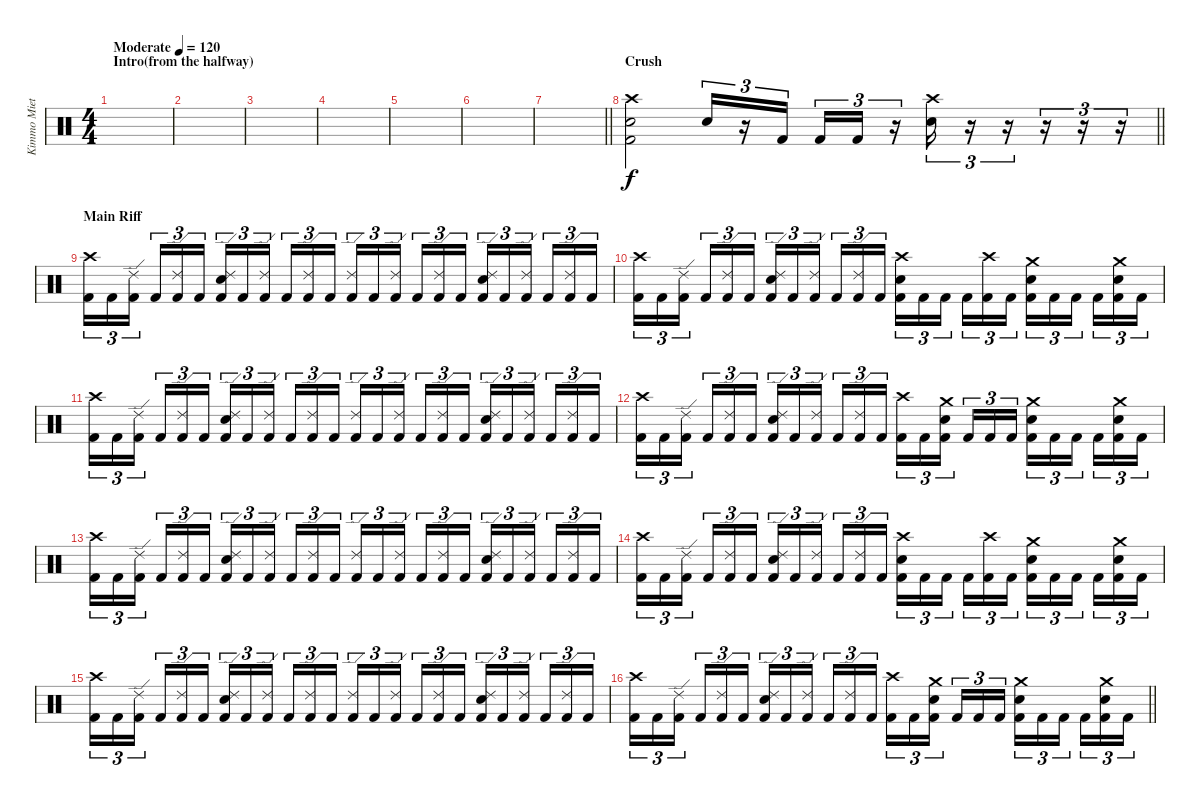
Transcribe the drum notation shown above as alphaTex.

\track ("Kimmo Miettinen" "Kimmo Miet") {instrument percussion}
\staff {score}
\articulation defaults
\ts (4 4)
\section ("" "Intro(from the halfway)")
\tempo (120 "Moderate")
\clef neutral
\ks c
|
|
|
|
|
|
\barLineRight lightlight
|
\section ("" "Crush")
\barLineRight lightlight
("Crash high (hit)" "Electric Snare (hit)" "Kick (hit) 2").2 "Electric Snare (hit)".16{tu (3 2)} r.16{tu (3 2)} "Kick (hit) 2".16{tu (3 2) beam splitsecondary} "Kick (hit) 2".16{tu (3 2)} "Kick (hit) 2".16{tu (3 2)} r.16{tu (3 2)} ("Crash high (hit)" "Electric Snare (hit)").16{tu (3 2)} r.16{tu (3 2)} r.16{tu (3 2)} r.16{tu (3 2)} r.16{tu (3 2)} r.16{tu (3 2)} |
\section ("" "Main Riff")
("Crash high (hit)" "Kick (hit) 2").16{tu (3 2)} "Kick (hit) 2".16{tu (3 2)} ("Ride (edge) 2" "Kick (hit) 2").16{tu (3 2) beam splitsecondary} "Kick (hit) 2".16{tu (3 2)} ("Ride (edge) 2" "Kick (hit) 2").16{tu (3 2)} "Kick (hit) 2".16{tu (3 2)} ("Ride (edge) 2" "Electric Snare (hit)" "Kick (hit) 2").16{tu (3 2)} "Kick (hit) 2".16{tu (3 2)} ("Ride (edge) 2" "Kick (hit) 2").16{tu (3 2) beam splitsecondary} "Kick (hit) 2".16{tu (3 2)} ("Ride (edge) 2" "Kick (hit) 2").16{tu (3 2)} "Kick (hit) 2".16{tu (3 2)} ("Ride (edge) 2" "Kick (hit) 2").16{tu (3 2)} "Kick (hit) 2".16{tu (3 2)} ("Ride (edge) 2" "Kick (hit) 2").16{tu (3 2) beam splitsecondary} "Kick (hit) 2".16{tu (3 2)} ("Ride (edge) 2" "Kick (hit) 2").16{tu (3 2)} "Kick (hit) 2".16{tu (3 2)} ("Ride (edge) 2" "Electric Snare (hit)" "Kick (hit) 2").16{tu (3 2)} "Kick (hit) 2".16{tu (3 2)} ("Ride (edge) 2" "Kick (hit) 2").16{tu (3 2) beam splitsecondary} "Kick (hit) 2".16{tu (3 2)} ("Ride (edge) 2" "Kick (hit) 2").16{tu (3 2)} "Kick (hit) 2".16{tu (3 2)} |
("Crash high (hit)" "Kick (hit) 2").16{tu (3 2)} "Kick (hit) 2".16{tu (3 2)} ("Ride (edge) 2" "Kick (hit) 2").16{tu (3 2) beam splitsecondary} "Kick (hit) 2".16{tu (3 2)} ("Ride (edge) 2" "Kick (hit) 2").16{tu (3 2)} "Kick (hit) 2".16{tu (3 2)} ("Ride (edge) 2" "Electric Snare (hit)" "Kick (hit) 2").16{tu (3 2)} "Kick (hit) 2".16{tu (3 2)} ("Ride (edge) 2" "Kick (hit) 2").16{tu (3 2) beam splitsecondary} "Kick (hit) 2".16{tu (3 2)} ("Ride (edge) 2" "Kick (hit) 2").16{tu (3 2)} "Kick (hit) 2".16{tu (3 2)} ("Crash high (hit)" "Electric Snare (hit)" "Kick (hit) 2").16{tu (3 2)} "Kick (hit) 2".16{tu (3 2)} "Kick (hit) 2".16{tu (3 2) beam splitsecondary} "Kick (hit) 2".16{tu (3 2)} ("Crash high (hit)" "Kick (hit) 2").16{tu (3 2)} "Kick (hit) 2".16{tu (3 2)} ("Crash medium (hit)" "Electric Snare (hit)" "Kick (hit) 2").16{tu (3 2)} "Kick (hit) 2".16{tu (3 2)} "Kick (hit) 2".16{tu (3 2) beam splitsecondary} "Kick (hit) 2".16{tu (3 2)} ("Crash medium (hit)" "Electric Snare (hit)" "Kick (hit) 2").16{tu (3 2)} "Kick (hit) 2".16{tu (3 2)} |
("Crash high (hit)" "Kick (hit) 2").16{tu (3 2)} "Kick (hit) 2".16{tu (3 2)} ("Ride (edge) 2" "Kick (hit) 2").16{tu (3 2) beam splitsecondary} "Kick (hit) 2".16{tu (3 2)} ("Ride (edge) 2" "Kick (hit) 2").16{tu (3 2)} "Kick (hit) 2".16{tu (3 2)} ("Ride (edge) 2" "Electric Snare (hit)" "Kick (hit) 2").16{tu (3 2)} "Kick (hit) 2".16{tu (3 2)} ("Ride (edge) 2" "Kick (hit) 2").16{tu (3 2) beam splitsecondary} "Kick (hit) 2".16{tu (3 2)} ("Ride (edge) 2" "Kick (hit) 2").16{tu (3 2)} "Kick (hit) 2".16{tu (3 2)} ("Ride (edge) 2" "Kick (hit) 2").16{tu (3 2)} "Kick (hit) 2".16{tu (3 2)} ("Ride (edge) 2" "Kick (hit) 2").16{tu (3 2) beam splitsecondary} "Kick (hit) 2".16{tu (3 2)} ("Ride (edge) 2" "Kick (hit) 2").16{tu (3 2)} "Kick (hit) 2".16{tu (3 2)} ("Ride (edge) 2" "Electric Snare (hit)" "Kick (hit) 2").16{tu (3 2)} "Kick (hit) 2".16{tu (3 2)} ("Ride (edge) 2" "Kick (hit) 2").16{tu (3 2) beam splitsecondary} "Kick (hit) 2".16{tu (3 2)} ("Ride (edge) 2" "Kick (hit) 2").16{tu (3 2)} "Kick (hit) 2".16{tu (3 2)} |
("Crash high (hit)" "Kick (hit) 2").16{tu (3 2)} "Kick (hit) 2".16{tu (3 2)} ("Ride (edge) 2" "Kick (hit) 2").16{tu (3 2) beam splitsecondary} "Kick (hit) 2".16{tu (3 2)} ("Ride (edge) 2" "Kick (hit) 2").16{tu (3 2)} "Kick (hit) 2".16{tu (3 2)} ("Ride (edge) 2" "Electric Snare (hit)" "Kick (hit) 2").16{tu (3 2)} "Kick (hit) 2".16{tu (3 2)} ("Ride (edge) 2" "Kick (hit) 2").16{tu (3 2) beam splitsecondary} "Kick (hit) 2".16{tu (3 2)} ("Ride (edge) 2" "Kick (hit) 2").16{tu (3 2)} "Kick (hit) 2".16{tu (3 2)} ("Crash high (hit)" "Kick (hit) 2").16{tu (3 2)} "Kick (hit) 2".16{tu (3 2)} ("Crash medium (hit)" "Electric Snare (hit)" "Kick (hit) 2").16{tu (3 2) beam splitsecondary} "Kick (hit) 2".16{tu (3 2)} "Kick (hit) 2".16{tu (3 2)} "Kick (hit) 2".16{tu (3 2)} ("Crash medium (hit)" "Electric Snare (hit)" "Kick (hit) 2").16{tu (3 2)} "Kick (hit) 2".16{tu (3 2)} "Kick (hit) 2".16{tu (3 2) beam splitsecondary} "Kick (hit) 2".16{tu (3 2)} ("Crash medium (hit)" "Electric Snare (hit)" "Kick (hit) 2").16{tu (3 2)} "Kick (hit) 2".16{tu (3 2)} |
("Crash high (hit)" "Kick (hit) 2").16{tu (3 2)} "Kick (hit) 2".16{tu (3 2)} ("Ride (edge) 2" "Kick (hit) 2").16{tu (3 2) beam splitsecondary} "Kick (hit) 2".16{tu (3 2)} ("Ride (edge) 2" "Kick (hit) 2").16{tu (3 2)} "Kick (hit) 2".16{tu (3 2)} ("Ride (edge) 2" "Electric Snare (hit)" "Kick (hit) 2").16{tu (3 2)} "Kick (hit) 2".16{tu (3 2)} ("Ride (edge) 2" "Kick (hit) 2").16{tu (3 2) beam splitsecondary} "Kick (hit) 2".16{tu (3 2)} ("Ride (edge) 2" "Kick (hit) 2").16{tu (3 2)} "Kick (hit) 2".16{tu (3 2)} ("Ride (edge) 2" "Kick (hit) 2").16{tu (3 2)} "Kick (hit) 2".16{tu (3 2)} ("Ride (edge) 2" "Kick (hit) 2").16{tu (3 2) beam splitsecondary} "Kick (hit) 2".16{tu (3 2)} ("Ride (edge) 2" "Kick (hit) 2").16{tu (3 2)} "Kick (hit) 2".16{tu (3 2)} ("Ride (edge) 2" "Electric Snare (hit)" "Kick (hit) 2").16{tu (3 2)} "Kick (hit) 2".16{tu (3 2)} ("Ride (edge) 2" "Kick (hit) 2").16{tu (3 2) beam splitsecondary} "Kick (hit) 2".16{tu (3 2)} ("Ride (edge) 2" "Kick (hit) 2").16{tu (3 2)} "Kick (hit) 2".16{tu (3 2)} |
("Crash high (hit)" "Kick (hit) 2").16{tu (3 2)} "Kick (hit) 2".16{tu (3 2)} ("Ride (edge) 2" "Kick (hit) 2").16{tu (3 2) beam splitsecondary} "Kick (hit) 2".16{tu (3 2)} ("Ride (edge) 2" "Kick (hit) 2").16{tu (3 2)} "Kick (hit) 2".16{tu (3 2)} ("Ride (edge) 2" "Electric Snare (hit)" "Kick (hit) 2").16{tu (3 2)} "Kick (hit) 2".16{tu (3 2)} ("Ride (edge) 2" "Kick (hit) 2").16{tu (3 2) beam splitsecondary} "Kick (hit) 2".16{tu (3 2)} ("Ride (edge) 2" "Kick (hit) 2").16{tu (3 2)} "Kick (hit) 2".16{tu (3 2)} ("Crash high (hit)" "Electric Snare (hit)" "Kick (hit) 2").16{tu (3 2)} "Kick (hit) 2".16{tu (3 2)} "Kick (hit) 2".16{tu (3 2) beam splitsecondary} "Kick (hit) 2".16{tu (3 2)} ("Crash high (hit)" "Kick (hit) 2").16{tu (3 2)} "Kick (hit) 2".16{tu (3 2)} ("Crash medium (hit)" "Electric Snare (hit)" "Kick (hit) 2").16{tu (3 2)} "Kick (hit) 2".16{tu (3 2)} "Kick (hit) 2".16{tu (3 2) beam splitsecondary} "Kick (hit) 2".16{tu (3 2)} ("Crash medium (hit)" "Electric Snare (hit)" "Kick (hit) 2").16{tu (3 2)} "Kick (hit) 2".16{tu (3 2)} |
("Crash high (hit)" "Kick (hit) 2").16{tu (3 2)} "Kick (hit) 2".16{tu (3 2)} ("Ride (edge) 2" "Kick (hit) 2").16{tu (3 2) beam splitsecondary} "Kick (hit) 2".16{tu (3 2)} ("Ride (edge) 2" "Kick (hit) 2").16{tu (3 2)} "Kick (hit) 2".16{tu (3 2)} ("Ride (edge) 2" "Electric Snare (hit)" "Kick (hit) 2").16{tu (3 2)} "Kick (hit) 2".16{tu (3 2)} ("Ride (edge) 2" "Kick (hit) 2").16{tu (3 2) beam splitsecondary} "Kick (hit) 2".16{tu (3 2)} ("Ride (edge) 2" "Kick (hit) 2").16{tu (3 2)} "Kick (hit) 2".16{tu (3 2)} ("Ride (edge) 2" "Kick (hit) 2").16{tu (3 2)} "Kick (hit) 2".16{tu (3 2)} ("Ride (edge) 2" "Kick (hit) 2").16{tu (3 2) beam splitsecondary} "Kick (hit) 2".16{tu (3 2)} ("Ride (edge) 2" "Kick (hit) 2").16{tu (3 2)} "Kick (hit) 2".16{tu (3 2)} ("Ride (edge) 2" "Electric Snare (hit)" "Kick (hit) 2").16{tu (3 2)} "Kick (hit) 2".16{tu (3 2)} ("Ride (edge) 2" "Kick (hit) 2").16{tu (3 2) beam splitsecondary} "Kick (hit) 2".16{tu (3 2)} ("Ride (edge) 2" "Kick (hit) 2").16{tu (3 2)} "Kick (hit) 2".16{tu (3 2)} |
\barLineRight lightlight
("Crash high (hit)" "Kick (hit) 2").16{tu (3 2)} "Kick (hit) 2".16{tu (3 2)} ("Ride (edge) 2" "Kick (hit) 2").16{tu (3 2) beam splitsecondary} "Kick (hit) 2".16{tu (3 2)} ("Ride (edge) 2" "Kick (hit) 2").16{tu (3 2)} "Kick (hit) 2".16{tu (3 2)} ("Ride (edge) 2" "Electric Snare (hit)" "Kick (hit) 2").16{tu (3 2)} "Kick (hit) 2".16{tu (3 2)} ("Ride (edge) 2" "Kick (hit) 2").16{tu (3 2) beam splitsecondary} "Kick (hit) 2".16{tu (3 2)} ("Ride (edge) 2" "Kick (hit) 2").16{tu (3 2)} "Kick (hit) 2".16{tu (3 2)} ("Crash high (hit)" "Kick (hit) 2").16{tu (3 2)} "Kick (hit) 2".16{tu (3 2)} ("Crash medium (hit)" "Electric Snare (hit)" "Kick (hit) 2").16{tu (3 2) beam splitsecondary} "Kick (hit) 2".16{tu (3 2)} "Kick (hit) 2".16{tu (3 2)} "Kick (hit) 2".16{tu (3 2)} ("Crash medium (hit)" "Electric Snare (hit)" "Kick (hit) 2").16{tu (3 2)} "Kick (hit) 2".16{tu (3 2)} "Kick (hit) 2".16{tu (3 2) beam splitsecondary} "Kick (hit) 2".16{tu (3 2)} ("Crash medium (hit)" "Electric Snare (hit)" "Kick (hit) 2").16{tu (3 2)} "Kick (hit) 2".16{tu (3 2)}
